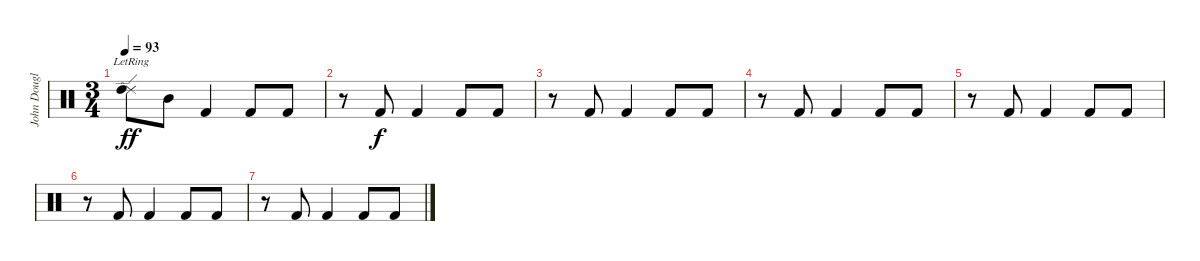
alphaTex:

\track ("John Douglas (Drums)" "John Dougl") {instrument percussion}
\staff {score}
\articulation defaults
\ts (3 4)
\tempo 93
\clef neutral
\ks c
("Ride (edge) 2"{lr} "High Tom (hit)").8{dy ff} "Mid Tom (hit)".8 "Kick (hit) 2".4 "Kick (hit) 2".8 "Kick (hit) 2".8 |
r.8 "Kick (hit) 2".8{dy f} "Kick (hit) 2".4 "Kick (hit) 2".8 "Kick (hit) 2".8 |
r.8 "Kick (hit) 2".8 "Kick (hit) 2".4 "Kick (hit) 2".8 "Kick (hit) 2".8 |
r.8 "Kick (hit) 2".8 "Kick (hit) 2".4 "Kick (hit) 2".8 "Kick (hit) 2".8 |
r.8 "Kick (hit) 2".8 "Kick (hit) 2".4 "Kick (hit) 2".8 "Kick (hit) 2".8 |
r.8 "Kick (hit) 2".8{volume 0} "Kick (hit) 2".4 "Kick (hit) 2".8 "Kick (hit) 2".8 |
r.8 "Kick (hit) 2".8 "Kick (hit) 2".4 "Kick (hit) 2".8 "Kick (hit) 2".8
